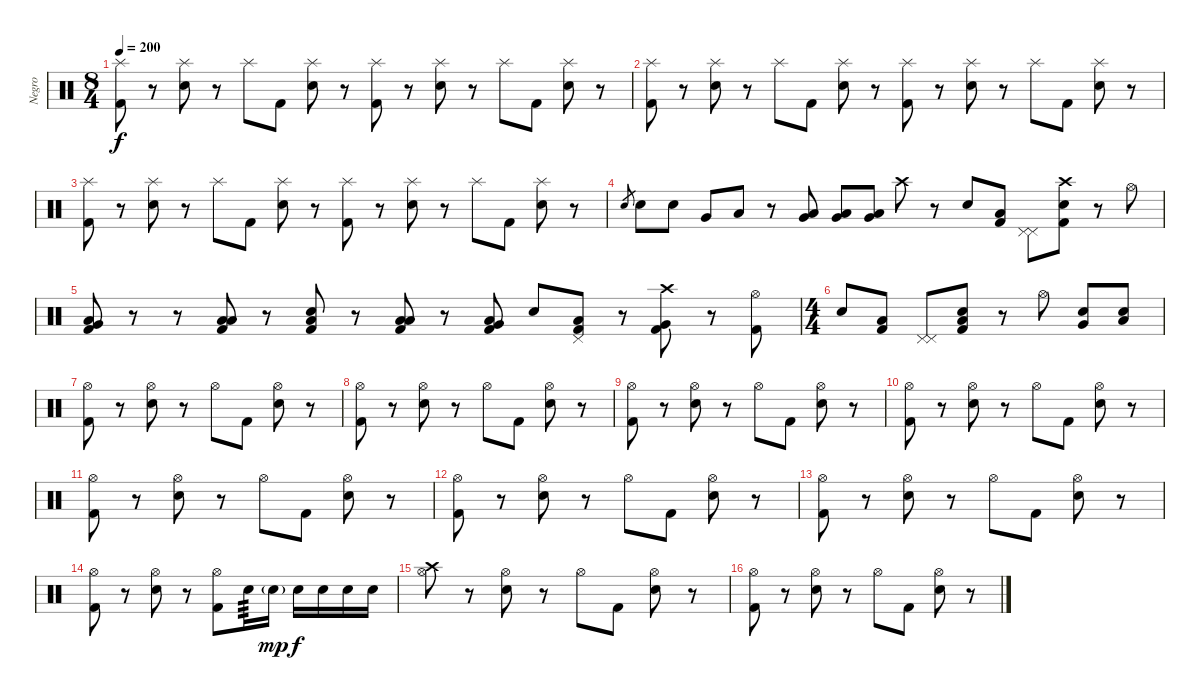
\track ("Negro" "Negro") {instrument percussion}
\staff {score}
\articulation defaults
\ts (8 4)
\tempo 200
\clef neutral
\ks c
("Splash (hit)" "Kick (hit) 2").8{dy f} r.8 ("Splash (hit)" "Electric Snare (hit)").8 r.8 "Splash (hit)".8 "Kick (hit) 2".8 ("Splash (hit)" "Electric Snare (hit)").8 r.8 ("Splash (hit)" "Kick (hit) 2").8 r.8 ("Splash (hit)" "Electric Snare (hit)").8 r.8 "Splash (hit)".8 "Kick (hit) 2".8 ("Splash (hit)" "Electric Snare (hit)").8 r.8 |
("Splash (hit)" "Kick (hit) 2").8 r.8 ("Splash (hit)" "Electric Snare (hit)").8 r.8 "Splash (hit)".8 "Kick (hit) 2".8 ("Splash (hit)" "Electric Snare (hit)").8 r.8 ("Splash (hit)" "Kick (hit) 2").8 r.8 ("Splash (hit)" "Electric Snare (hit)").8 r.8 "Splash (hit)".8 "Kick (hit) 2".8 ("Splash (hit)" "Electric Snare (hit)").8 r.8 |
("Splash (hit)" "Kick (hit) 2").8 r.8 ("Splash (hit)" "Electric Snare (hit)").8 r.8 "Splash (hit)".8 "Kick (hit) 2".8 ("Splash (hit)" "Electric Snare (hit)").8 r.8 ("Splash (hit)" "Kick (hit) 2").8 r.8 ("Splash (hit)" "Electric Snare (hit)").8 r.8 "Splash (hit)".8 "Kick (hit) 2".8 ("Splash (hit)" "Electric Snare (hit)").8 r.8 |
"Electric Snare (hit)".8{gr} "Electric Snare (hit)".8 "Electric Snare (hit)".8 "Very Low Tom (hit)".8 "Low Floor Tom (hit)".8 r.8 ("Very Low Tom (hit)" "Low Floor Tom (hit)").8 ("Very Low Tom (hit)" "Low Floor Tom (hit)").8 ("Very Low Tom (hit)" "Low Floor Tom (hit)").8 "Crash high (hit)".8 r.8 "Electric Snare (hit)".8 ("Kick (hit) 2" "Low Floor Tom (hit)").8 ("Pedal Hi-Hat (hit)" "Pedal Hi-Hat (hit)").8 ("Electric Snare (hit)" "Crash high (hit)" "Kick (hit) 2").8 r.8 "Hi-Hat (open)".8 |
("Kick (hit) 2" "Very Low Tom (hit)" "Low Floor Tom (hit)").8 r.8 r.8 ("Kick (hit) 2" "Low Tom (hit)" "Low Floor Tom (hit)").8 r.8 ("Kick (hit) 2" "Electric Snare (hit)" "Low Floor Tom (hit)").8 r.8 ("Kick (hit) 2" "Low Tom (hit)" "Low Floor Tom (hit)").8 r.8 ("Kick (hit) 2" "Low Tom (hit)" "Very Low Tom (hit)").8 "Electric Snare (hit)".8 ("Kick (hit) 2" "Pedal Hi-Hat (hit)" "Low Floor Tom (hit)").8 r.8 ("Kick (hit) 2" "Crash high (hit)" "Very Low Tom (hit)").8 r.8 ("Kick (hit) 2" "Hi-Hat (open)").8 |
\ts (4 4)
"Electric Snare (hit)".8 ("Kick (hit) 2" "Low Floor Tom (hit)").8 ("Pedal Hi-Hat (hit)" "Pedal Hi-Hat (hit)").8 ("Electric Snare (hit)" "Low Tom (hit)" "Kick (hit) 2").8 r.8 "Hi-Hat (open)".8 ("Electric Snare (hit)" "Very Low Tom (hit)").8 ("Electric Snare (hit)" "Low Floor Tom (hit)").8 |
("Hi-Hat (open)" "Kick (hit) 2").8 r.8 ("Hi-Hat (open)" "Electric Snare (hit)").8 r.8 "Hi-Hat (open)".8 "Kick (hit) 2".8 ("Hi-Hat (open)" "Electric Snare (hit)").8 r.8 |
("Hi-Hat (open)" "Kick (hit) 2").8 r.8 ("Hi-Hat (open)" "Electric Snare (hit)").8 r.8 "Hi-Hat (open)".8 "Kick (hit) 2".8 ("Hi-Hat (open)" "Electric Snare (hit)").8 r.8 |
("Hi-Hat (open)" "Kick (hit) 2").8 r.8 ("Hi-Hat (open)" "Electric Snare (hit)").8 r.8 "Hi-Hat (open)".8 "Kick (hit) 2".8 ("Hi-Hat (open)" "Electric Snare (hit)").8 r.8 |
("Hi-Hat (open)" "Kick (hit) 2").8 r.8 ("Hi-Hat (open)" "Electric Snare (hit)").8 r.8 "Hi-Hat (open)".8 "Kick (hit) 2".8 ("Hi-Hat (open)" "Electric Snare (hit)").8 r.8 |
("Hi-Hat (open)" "Kick (hit) 2").8 r.8 ("Hi-Hat (open)" "Electric Snare (hit)").8 r.8 "Hi-Hat (open)".8 "Kick (hit) 2".8 ("Hi-Hat (open)" "Electric Snare (hit)").8 r.8 |
("Hi-Hat (open)" "Kick (hit) 2").8 r.8 ("Hi-Hat (open)" "Electric Snare (hit)").8 r.8 "Hi-Hat (open)".8 "Kick (hit) 2".8 ("Hi-Hat (open)" "Electric Snare (hit)").8 r.8 |
("Hi-Hat (open)" "Kick (hit) 2").8 r.8 ("Hi-Hat (open)" "Electric Snare (hit)").8 r.8 "Hi-Hat (open)".8 "Kick (hit) 2".8 ("Hi-Hat (open)" "Electric Snare (hit)").8 r.8 |
("Hi-Hat (open)" "Kick (hit) 2").8 r.8 ("Hi-Hat (open)" "Electric Snare (hit)").8 r.8 ("Hi-Hat (open)" "Kick (hit) 2").8 "Electric Snare (hit)".16{tp 3} "Electric Snare (hit)"{g}.16{dy mp} "Electric Snare (hit)".16{dy f} "Electric Snare (hit)".16 "Electric Snare (hit)".16 "Electric Snare (hit)".16 |
("Hi-Hat (open)" "Crash high (hit)").8 r.8 ("Hi-Hat (open)" "Electric Snare (hit)").8 r.8 "Hi-Hat (open)".8 "Kick (hit) 2".8 ("Hi-Hat (open)" "Electric Snare (hit)").8 r.8 |
("Hi-Hat (open)" "Kick (hit) 2").8 r.8 ("Hi-Hat (open)" "Electric Snare (hit)").8 r.8 "Hi-Hat (open)".8 "Kick (hit) 2".8 ("Hi-Hat (open)" "Electric Snare (hit)").8 r.8
